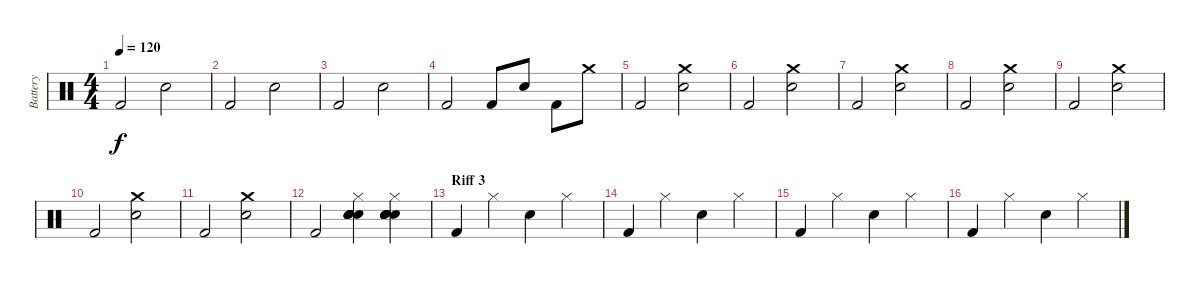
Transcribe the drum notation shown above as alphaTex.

\track ("Battery" "Battery") {instrument percussion}
\staff {score}
\articulation defaults
\ts (4 4)
\tempo 120
\clef neutral
\ks c "Kick (hit) 2".2{dy f} "Snare (hit) 2".2
|
"Kick (hit) 2".2 "Snare (hit) 2".2 |
"Kick (hit) 2".2 "Snare (hit) 2".2 |
"Kick (hit) 2".2 "Kick (hit) 2".8 "Snare (hit) 2".8 "Kick (hit) 2".8 "Crash medium (hit)".8 |
"Kick (hit) 2".2 ("Snare (hit) 2" "Crash medium (hit)").2 |
"Kick (hit) 2".2 ("Snare (hit) 2" "Crash medium (hit)").2 |
"Kick (hit) 2".2 ("Snare (hit) 2" "Crash medium (hit)").2 |
"Kick (hit) 2".2 ("Snare (hit) 2" "Crash medium (hit)").2 |
"Kick (hit) 2".2 ("Snare (hit) 2" "Crash medium (hit)").2 |
"Kick (hit) 2".2 ("Snare (hit) 2" "Crash medium (hit)").2 |
"Kick (hit) 2".2 ("Snare (hit) 2" "Crash medium (hit)").2 |
"Kick (hit) 2".2 ("Snare (hit) 2" "Snare (hit) 2" "Snare (hit) 2" "Electric Snare (hit)" "Electric Snare (hit)" "Hi-Hat (closed)").4 ("Snare (hit) 2" "Snare (hit) 2" "Snare (hit) 2" "Electric Snare (hit)" "Electric Snare (hit)" "Hi-Hat (closed)").4 |
\section ("" "Riff 3")
"Kick (hit) 2".4 "Hi-Hat (closed)".4 "Snare (hit) 2".4 "Hi-Hat (closed)".4 |
"Kick (hit) 2".4 "Hi-Hat (closed)".4 "Snare (hit) 2".4 "Hi-Hat (closed)".4 |
"Kick (hit) 2".4 "Hi-Hat (closed)".4 "Snare (hit) 2".4 "Hi-Hat (closed)".4 |
"Kick (hit) 2".4 "Hi-Hat (closed)".4 "Snare (hit) 2".4 "Hi-Hat (closed)".4
